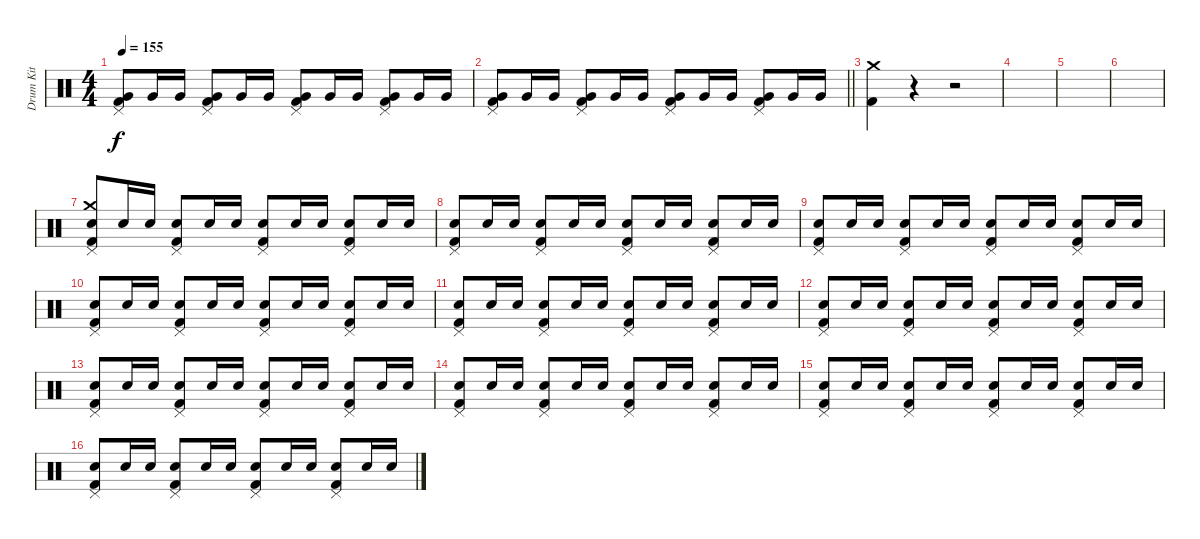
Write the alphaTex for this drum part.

\track ("Drum Kit" "Drum Kit") {instrument percussion}
\staff {score}
\articulation defaults
\ts (4 4)
\tempo 155
\clef neutral
\ks c
("Pedal Hi-Hat (hit)" "Very Low Tom (hit)" "Kick (hit) 2").8{dy f} "Very Low Tom (hit)".16 "Very Low Tom (hit)".16 ("Pedal Hi-Hat (hit)" "Very Low Tom (hit)" "Kick (hit) 2").8 "Very Low Tom (hit)".16 "Very Low Tom (hit)".16 ("Pedal Hi-Hat (hit)" "Very Low Tom (hit)" "Kick (hit) 2").8 "Very Low Tom (hit)".16 "Very Low Tom (hit)".16 ("Pedal Hi-Hat (hit)" "Very Low Tom (hit)" "Kick (hit) 2").8 "Very Low Tom (hit)".16 "Very Low Tom (hit)".16 |
\barLineRight lightlight
("Pedal Hi-Hat (hit)" "Very Low Tom (hit)" "Kick (hit) 2").8 "Very Low Tom (hit)".16 "Very Low Tom (hit)".16 ("Pedal Hi-Hat (hit)" "Very Low Tom (hit)" "Kick (hit) 2").8 "Very Low Tom (hit)".16 "Very Low Tom (hit)".16 ("Pedal Hi-Hat (hit)" "Very Low Tom (hit)" "Kick (hit) 2").8 "Very Low Tom (hit)".16 "Very Low Tom (hit)".16 ("Pedal Hi-Hat (hit)" "Very Low Tom (hit)" "Kick (hit) 2").8 "Very Low Tom (hit)".16 "Very Low Tom (hit)".16 |
("Crash medium (hit)" "Kick (hit) 2").4 r.4 r.2 |
|
|
|
("Crash medium (hit)" "Pedal Hi-Hat (hit)" "Snare (hit) 2" "Kick (hit) 2").8{volume 9} "Snare (hit) 2".16 "Snare (hit) 2".16 ("Pedal Hi-Hat (hit)" "Snare (hit) 2" "Kick (hit) 2").8 "Snare (hit) 2".16 "Snare (hit) 2".16 ("Pedal Hi-Hat (hit)" "Snare (hit) 2" "Kick (hit) 2").8 "Snare (hit) 2".16 "Snare (hit) 2".16 ("Pedal Hi-Hat (hit)" "Snare (hit) 2" "Kick (hit) 2").8 "Snare (hit) 2".16 "Snare (hit) 2".16 |
("Pedal Hi-Hat (hit)" "Snare (hit) 2" "Kick (hit) 2").8 "Snare (hit) 2".16 "Snare (hit) 2".16 ("Pedal Hi-Hat (hit)" "Snare (hit) 2" "Kick (hit) 2").8 "Snare (hit) 2".16 "Snare (hit) 2".16 ("Pedal Hi-Hat (hit)" "Snare (hit) 2" "Kick (hit) 2").8 "Snare (hit) 2".16 "Snare (hit) 2".16 ("Pedal Hi-Hat (hit)" "Snare (hit) 2" "Kick (hit) 2").8 "Snare (hit) 2".16 "Snare (hit) 2".16 |
("Pedal Hi-Hat (hit)" "Snare (hit) 2" "Kick (hit) 2").8 "Snare (hit) 2".16 "Snare (hit) 2".16 ("Pedal Hi-Hat (hit)" "Snare (hit) 2" "Kick (hit) 2").8 "Snare (hit) 2".16 "Snare (hit) 2".16 ("Pedal Hi-Hat (hit)" "Snare (hit) 2" "Kick (hit) 2").8 "Snare (hit) 2".16 "Snare (hit) 2".16 ("Pedal Hi-Hat (hit)" "Snare (hit) 2" "Kick (hit) 2").8 "Snare (hit) 2".16 "Snare (hit) 2".16 |
("Pedal Hi-Hat (hit)" "Snare (hit) 2" "Kick (hit) 2").8 "Snare (hit) 2".16 "Snare (hit) 2".16 ("Pedal Hi-Hat (hit)" "Snare (hit) 2" "Kick (hit) 2").8 "Snare (hit) 2".16 "Snare (hit) 2".16 ("Pedal Hi-Hat (hit)" "Snare (hit) 2" "Kick (hit) 2").8 "Snare (hit) 2".16 "Snare (hit) 2".16 ("Pedal Hi-Hat (hit)" "Snare (hit) 2" "Kick (hit) 2").8 "Snare (hit) 2".16 "Snare (hit) 2".16 |
("Pedal Hi-Hat (hit)" "Snare (hit) 2" "Kick (hit) 2").8 "Snare (hit) 2".16 "Snare (hit) 2".16 ("Pedal Hi-Hat (hit)" "Snare (hit) 2" "Kick (hit) 2").8 "Snare (hit) 2".16 "Snare (hit) 2".16 ("Pedal Hi-Hat (hit)" "Snare (hit) 2" "Kick (hit) 2").8 "Snare (hit) 2".16 "Snare (hit) 2".16 ("Pedal Hi-Hat (hit)" "Snare (hit) 2" "Kick (hit) 2").8 "Snare (hit) 2".16 "Snare (hit) 2".16 |
("Pedal Hi-Hat (hit)" "Snare (hit) 2" "Kick (hit) 2").8 "Snare (hit) 2".16 "Snare (hit) 2".16 ("Pedal Hi-Hat (hit)" "Snare (hit) 2" "Kick (hit) 2").8 "Snare (hit) 2".16 "Snare (hit) 2".16 ("Pedal Hi-Hat (hit)" "Snare (hit) 2" "Kick (hit) 2").8 "Snare (hit) 2".16 "Snare (hit) 2".16 ("Pedal Hi-Hat (hit)" "Snare (hit) 2" "Kick (hit) 2").8 "Snare (hit) 2".16 "Snare (hit) 2".16 |
("Pedal Hi-Hat (hit)" "Snare (hit) 2" "Kick (hit) 2").8 "Snare (hit) 2".16 "Snare (hit) 2".16 ("Pedal Hi-Hat (hit)" "Snare (hit) 2" "Kick (hit) 2").8 "Snare (hit) 2".16 "Snare (hit) 2".16 ("Pedal Hi-Hat (hit)" "Snare (hit) 2" "Kick (hit) 2").8 "Snare (hit) 2".16 "Snare (hit) 2".16 ("Pedal Hi-Hat (hit)" "Snare (hit) 2" "Kick (hit) 2").8 "Snare (hit) 2".16 "Snare (hit) 2".16 |
("Pedal Hi-Hat (hit)" "Snare (hit) 2" "Kick (hit) 2").8 "Snare (hit) 2".16 "Snare (hit) 2".16 ("Pedal Hi-Hat (hit)" "Snare (hit) 2" "Kick (hit) 2").8 "Snare (hit) 2".16 "Snare (hit) 2".16 ("Pedal Hi-Hat (hit)" "Snare (hit) 2" "Kick (hit) 2").8 "Snare (hit) 2".16 "Snare (hit) 2".16 ("Pedal Hi-Hat (hit)" "Snare (hit) 2" "Kick (hit) 2").8 "Snare (hit) 2".16 "Snare (hit) 2".16 |
("Pedal Hi-Hat (hit)" "Snare (hit) 2" "Kick (hit) 2").8 "Snare (hit) 2".16 "Snare (hit) 2".16 ("Pedal Hi-Hat (hit)" "Snare (hit) 2" "Kick (hit) 2").8 "Snare (hit) 2".16 "Snare (hit) 2".16 ("Pedal Hi-Hat (hit)" "Snare (hit) 2" "Kick (hit) 2").8 "Snare (hit) 2".16 "Snare (hit) 2".16 ("Pedal Hi-Hat (hit)" "Snare (hit) 2" "Kick (hit) 2").8 "Snare (hit) 2".16 "Snare (hit) 2".16 |
("Pedal Hi-Hat (hit)" "Snare (hit) 2" "Kick (hit) 2").8 "Snare (hit) 2".16 "Snare (hit) 2".16 ("Pedal Hi-Hat (hit)" "Snare (hit) 2" "Kick (hit) 2").8 "Snare (hit) 2".16 "Snare (hit) 2".16 ("Pedal Hi-Hat (hit)" "Snare (hit) 2" "Kick (hit) 2").8 "Snare (hit) 2".16 "Snare (hit) 2".16 ("Pedal Hi-Hat (hit)" "Snare (hit) 2" "Kick (hit) 2").8 "Snare (hit) 2".16 "Snare (hit) 2".16
